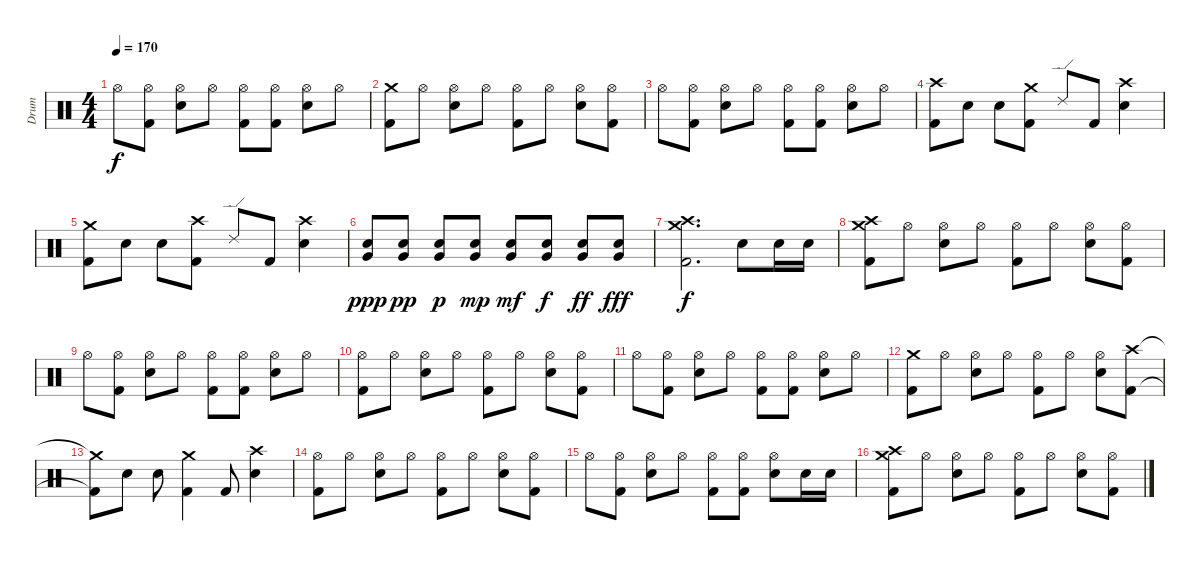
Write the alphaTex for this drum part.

\track ("Drum" "Drum") {instrument percussion}
\staff {score}
\articulation defaults
\ts (4 4)
\tempo 170
\clef neutral
\ks c "Hi-Hat (open)".8{dy f}
("Kick (hit) 2" "Hi-Hat (open)").8 ("Electric Snare (hit)" "Hi-Hat (open)").8 "Hi-Hat (open)".8 ("Kick (hit) 2" "Hi-Hat (open)").8 ("Kick (hit) 2" "Hi-Hat (open)").8 ("Electric Snare (hit)" "Hi-Hat (open)").8 "Hi-Hat (open)".8 |
("Kick (hit) 2" "Crash medium (hit)").8 "Hi-Hat (open)".8 ("Electric Snare (hit)" "Hi-Hat (open)").8 "Hi-Hat (open)".8 ("Kick (hit) 2" "Hi-Hat (open)").8 "Hi-Hat (open)".8 ("Electric Snare (hit)" "Hi-Hat (open)").8 ("Kick (hit) 2" "Hi-Hat (open)").8 |
"Hi-Hat (open)".8 ("Kick (hit) 2" "Hi-Hat (open)").8 ("Electric Snare (hit)" "Hi-Hat (open)").8 "Hi-Hat (open)".8 ("Kick (hit) 2" "Hi-Hat (open)").8 ("Kick (hit) 2" "Hi-Hat (open)").8 ("Electric Snare (hit)" "Hi-Hat (open)").8 "Hi-Hat (open)".8 |
("Kick (hit) 2" "Crash high (hit)").8 "Electric Snare (hit)".8 "Electric Snare (hit)".8 ("Kick (hit) 2" "Crash medium (hit)").8 "Ride (edge) 2".8 "Kick (hit) 2".8 ("Electric Snare (hit)" "Crash high (hit)").4 |
("Kick (hit) 2" "Crash medium (hit)").8 "Electric Snare (hit)".8 "Electric Snare (hit)".8 ("Kick (hit) 2" "Crash high (hit)").8 "Ride (edge) 2".8 "Kick (hit) 2".8 ("Electric Snare (hit)" "Crash high (hit)").4 |
("Electric Snare (hit)" "Very Low Tom (hit)").8{dy ppp} ("Electric Snare (hit)" "Very Low Tom (hit)").8{dy pp} ("Electric Snare (hit)" "Very Low Tom (hit)").8{dy p} ("Electric Snare (hit)" "Very Low Tom (hit)").8{dy mp} ("Electric Snare (hit)" "Very Low Tom (hit)").8{dy mf} ("Electric Snare (hit)" "Very Low Tom (hit)").8{dy f} ("Electric Snare (hit)" "Very Low Tom (hit)").8{dy ff} ("Electric Snare (hit)" "Very Low Tom (hit)").8{dy fff} |
("Crash medium (hit)" "Crash high (hit)" "Kick (hit) 2").2{d dy f} "Electric Snare (hit)".8 "Electric Snare (hit)".16 "Electric Snare (hit)".16 |
("Kick (hit) 2" "Crash medium (hit)" "Crash high (hit)").8 "Hi-Hat (open)".8 ("Electric Snare (hit)" "Hi-Hat (open)").8 "Hi-Hat (open)".8 ("Kick (hit) 2" "Hi-Hat (open)").8 "Hi-Hat (open)".8 ("Electric Snare (hit)" "Hi-Hat (open)").8 ("Kick (hit) 2" "Hi-Hat (open)").8 |
"Hi-Hat (open)".8 ("Kick (hit) 2" "Hi-Hat (open)").8 ("Electric Snare (hit)" "Hi-Hat (open)").8 "Hi-Hat (open)".8 ("Kick (hit) 2" "Hi-Hat (open)").8 ("Kick (hit) 2" "Hi-Hat (open)").8 ("Electric Snare (hit)" "Hi-Hat (open)").8 "Hi-Hat (open)".8 |
("Kick (hit) 2" "Hi-Hat (open)").8 "Hi-Hat (open)".8 ("Electric Snare (hit)" "Hi-Hat (open)").8 "Hi-Hat (open)".8 ("Kick (hit) 2" "Hi-Hat (open)").8 "Hi-Hat (open)".8 ("Electric Snare (hit)" "Hi-Hat (open)").8 ("Kick (hit) 2" "Hi-Hat (open)").8 |
"Hi-Hat (open)".8 ("Kick (hit) 2" "Hi-Hat (open)").8 ("Electric Snare (hit)" "Hi-Hat (open)").8 "Hi-Hat (open)".8 ("Kick (hit) 2" "Hi-Hat (open)").8 ("Kick (hit) 2" "Hi-Hat (open)").8 ("Electric Snare (hit)" "Hi-Hat (open)").8 "Hi-Hat (open)".8 |
("Kick (hit) 2" "Crash medium (hit)").8 "Hi-Hat (open)".8 ("Electric Snare (hit)" "Hi-Hat (open)").8 "Hi-Hat (open)".8 ("Kick (hit) 2" "Hi-Hat (open)").8 "Hi-Hat (open)".8 ("Electric Snare (hit)" "Hi-Hat (open)").8 ("Kick (hit) 2" "Crash high (hit)").8 |
("Kick (hit) 2"{t} "Crash medium (hit)"{t}).8 "Electric Snare (hit)".8 "Electric Snare (hit)".8 ("Kick (hit) 2" "Crash medium (hit)").4 "Kick (hit) 2".8 ("Electric Snare (hit)" "Crash high (hit)").4 |
("Kick (hit) 2" "Hi-Hat (open)").8 "Hi-Hat (open)".8 ("Electric Snare (hit)" "Hi-Hat (open)").8 "Hi-Hat (open)".8 ("Kick (hit) 2" "Hi-Hat (open)").8 "Hi-Hat (open)".8 ("Electric Snare (hit)" "Hi-Hat (open)").8 ("Kick (hit) 2" "Hi-Hat (open)").8 |
"Hi-Hat (open)".8 ("Kick (hit) 2" "Hi-Hat (open)").8 ("Electric Snare (hit)" "Hi-Hat (open)").8 "Hi-Hat (open)".8 ("Kick (hit) 2" "Hi-Hat (open)").8 ("Kick (hit) 2" "Hi-Hat (open)").8 ("Electric Snare (hit)" "Hi-Hat (open)").8 "Electric Snare (hit)".16 "Electric Snare (hit)".16 |
("Kick (hit) 2" "Crash medium (hit)" "Crash high (hit)").8 "Hi-Hat (open)".8 ("Electric Snare (hit)" "Hi-Hat (open)").8 "Hi-Hat (open)".8 ("Kick (hit) 2" "Hi-Hat (open)").8 "Hi-Hat (open)".8 ("Electric Snare (hit)" "Hi-Hat (open)").8 ("Kick (hit) 2" "Hi-Hat (open)").8
